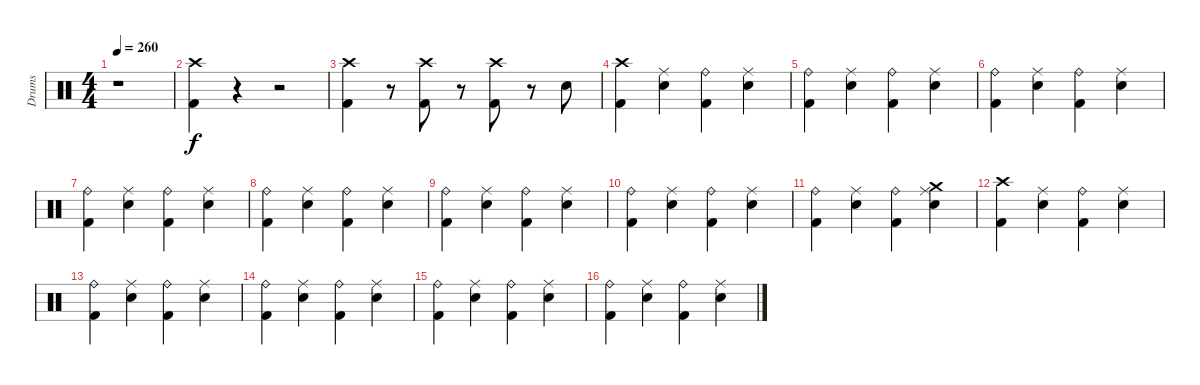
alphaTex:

\track ("Drums" "Drums") {instrument percussion}
\staff {score}
\articulation defaults
\ts (4 4)
\tempo 260
\clef neutral
\ks c
r.1{dy f} |
("Crash high (hit)" "Kick (hit) 2").4 r.4 r.2 |
("Crash high (hit)" "Kick (hit) 2").4 r.8 ("Crash high (hit)" "Kick (hit) 2").8 r.8 ("Crash high (hit)" "Kick (hit) 2").8 r.8 "Electric Snare (hit)".8 |
("Crash high (hit)" "Kick (hit) 2").4 ("Ride (middle)" "Electric Snare (hit)").4 ("Ride (bell)" "Kick (hit) 2").4 ("Ride (middle)" "Electric Snare (hit)").4 |
("Ride (bell)" "Kick (hit) 2").4 ("Ride (middle)" "Electric Snare (hit)").4 ("Ride (bell)" "Kick (hit) 2").4 ("Ride (middle)" "Electric Snare (hit)").4 |
("Ride (bell)" "Kick (hit) 2").4 ("Ride (middle)" "Electric Snare (hit)").4 ("Ride (bell)" "Kick (hit) 2").4 ("Ride (middle)" "Electric Snare (hit)").4 |
("Ride (bell)" "Kick (hit) 2").4 ("Ride (middle)" "Electric Snare (hit)").4 ("Ride (bell)" "Kick (hit) 2").4 ("Ride (middle)" "Electric Snare (hit)").4 |
("Ride (bell)" "Kick (hit) 2").4 ("Ride (middle)" "Electric Snare (hit)").4 ("Ride (bell)" "Kick (hit) 2").4 ("Ride (middle)" "Electric Snare (hit)").4 |
("Ride (bell)" "Kick (hit) 2").4 ("Ride (middle)" "Electric Snare (hit)").4 ("Ride (bell)" "Kick (hit) 2").4 ("Ride (middle)" "Electric Snare (hit)").4 |
("Ride (bell)" "Kick (hit) 2").4 ("Ride (middle)" "Electric Snare (hit)").4 ("Ride (bell)" "Kick (hit) 2").4 ("Ride (middle)" "Electric Snare (hit)").4 |
("Ride (bell)" "Kick (hit) 2").4 ("Ride (middle)" "Electric Snare (hit)").4 ("Ride (bell)" "Kick (hit) 2").4 ("Crash medium (hit)" "Ride (middle)" "Electric Snare (hit)").4 |
("Crash high (hit)" "Kick (hit) 2").4 ("Ride (middle)" "Electric Snare (hit)").4 ("Ride (bell)" "Kick (hit) 2").4 ("Ride (middle)" "Electric Snare (hit)").4 |
("Ride (bell)" "Kick (hit) 2").4 ("Ride (middle)" "Electric Snare (hit)").4 ("Ride (bell)" "Kick (hit) 2").4 ("Ride (middle)" "Electric Snare (hit)").4 |
("Ride (bell)" "Kick (hit) 2").4 ("Ride (middle)" "Electric Snare (hit)").4 ("Ride (bell)" "Kick (hit) 2").4 ("Ride (middle)" "Electric Snare (hit)").4 |
("Ride (bell)" "Kick (hit) 2").4 ("Ride (middle)" "Electric Snare (hit)").4 ("Ride (bell)" "Kick (hit) 2").4 ("Ride (middle)" "Electric Snare (hit)").4 |
("Ride (bell)" "Kick (hit) 2").4 ("Ride (middle)" "Electric Snare (hit)").4 ("Ride (bell)" "Kick (hit) 2").4 ("Ride (middle)" "Electric Snare (hit)").4
